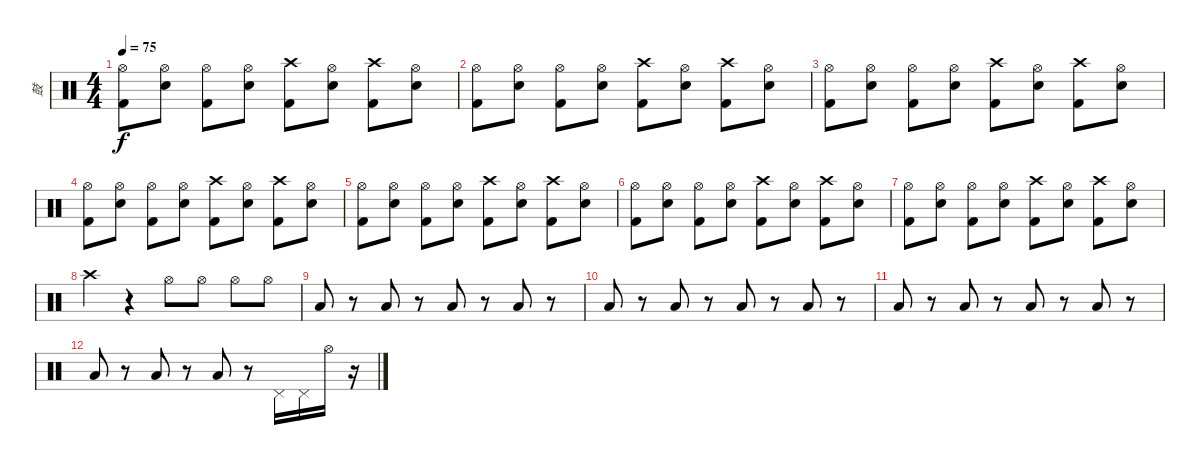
\track ("鼓" "鼓") {instrument percussion}
\staff {score}
\articulation defaults
\ts (4 4)
\tempo 75
\clef neutral
\ks c
("Hi-Hat (open)" "Kick (hit) 2").8{dy f} ("Hi-Hat (open)" "Electric Snare (hit)").8 ("Hi-Hat (open)" "Kick (hit) 2").8 ("Hi-Hat (open)" "Electric Snare (hit)").8 ("Crash high (hit)" "Kick (hit) 2").8 ("Hi-Hat (open)" "Electric Snare (hit)").8 ("Crash high (hit)" "Kick (hit) 2").8 ("Hi-Hat (open)" "Electric Snare (hit)").8 |
("Hi-Hat (open)" "Kick (hit) 2").8 ("Hi-Hat (open)" "Electric Snare (hit)").8 ("Hi-Hat (open)" "Kick (hit) 2").8 ("Hi-Hat (open)" "Electric Snare (hit)").8 ("Crash high (hit)" "Kick (hit) 2").8 ("Hi-Hat (open)" "Electric Snare (hit)").8 ("Crash high (hit)" "Kick (hit) 2").8 ("Hi-Hat (open)" "Electric Snare (hit)").8 |
("Hi-Hat (open)" "Kick (hit) 2").8 ("Hi-Hat (open)" "Electric Snare (hit)").8 ("Hi-Hat (open)" "Kick (hit) 2").8 ("Hi-Hat (open)" "Electric Snare (hit)").8 ("Crash high (hit)" "Kick (hit) 2").8 ("Hi-Hat (open)" "Electric Snare (hit)").8 ("Crash high (hit)" "Kick (hit) 2").8 ("Hi-Hat (open)" "Electric Snare (hit)").8 |
("Hi-Hat (open)" "Kick (hit) 2").8 ("Hi-Hat (open)" "Electric Snare (hit)").8 ("Hi-Hat (open)" "Kick (hit) 2").8 ("Hi-Hat (open)" "Electric Snare (hit)").8 ("Crash high (hit)" "Kick (hit) 2").8 ("Hi-Hat (open)" "Electric Snare (hit)").8 ("Crash high (hit)" "Kick (hit) 2").8 ("Hi-Hat (open)" "Electric Snare (hit)").8 |
("Hi-Hat (open)" "Kick (hit) 2").8 ("Hi-Hat (open)" "Electric Snare (hit)").8 ("Hi-Hat (open)" "Kick (hit) 2").8 ("Hi-Hat (open)" "Electric Snare (hit)").8 ("Crash high (hit)" "Kick (hit) 2").8 ("Hi-Hat (open)" "Electric Snare (hit)").8 ("Crash high (hit)" "Kick (hit) 2").8 ("Hi-Hat (open)" "Electric Snare (hit)").8 |
("Hi-Hat (open)" "Kick (hit) 2").8 ("Hi-Hat (open)" "Electric Snare (hit)").8 ("Hi-Hat (open)" "Kick (hit) 2").8 ("Hi-Hat (open)" "Electric Snare (hit)").8 ("Crash high (hit)" "Kick (hit) 2").8 ("Hi-Hat (open)" "Electric Snare (hit)").8 ("Crash high (hit)" "Kick (hit) 2").8 ("Hi-Hat (open)" "Electric Snare (hit)").8 |
("Hi-Hat (open)" "Kick (hit) 2").8 ("Hi-Hat (open)" "Electric Snare (hit)").8 ("Hi-Hat (open)" "Kick (hit) 2").8 ("Hi-Hat (open)" "Electric Snare (hit)").8 ("Crash high (hit)" "Kick (hit) 2").8 ("Hi-Hat (open)" "Electric Snare (hit)").8 ("Crash high (hit)" "Kick (hit) 2").8 ("Hi-Hat (open)" "Electric Snare (hit)").8 |
"Crash high (hit)".4 r.4 "Hi-Hat (open)".8 "Hi-Hat (open)".8 "Hi-Hat (open)".8 "Hi-Hat (open)".8 |
"Low Tom (hit)".8 r.8 "Low Tom (hit)".8 r.8 "Low Tom (hit)".8 r.8 "Low Tom (hit)".8 r.8 |
"Low Tom (hit)".8 r.8 "Low Tom (hit)".8 r.8 "Low Tom (hit)".8 r.8 "Low Tom (hit)".8 r.8 |
"Low Tom (hit)".8 r.8 "Low Tom (hit)".8 r.8 "Low Tom (hit)".8 r.8 "Low Tom (hit)".8 r.8 |
"Low Tom (hit)".8 r.8 "Low Tom (hit)".8 r.8 "Low Tom (hit)".8 r.8 "Pedal Hi-Hat (hit)".16 "Pedal Hi-Hat (hit)".16 "Hi-Hat (open)".16 r.16
